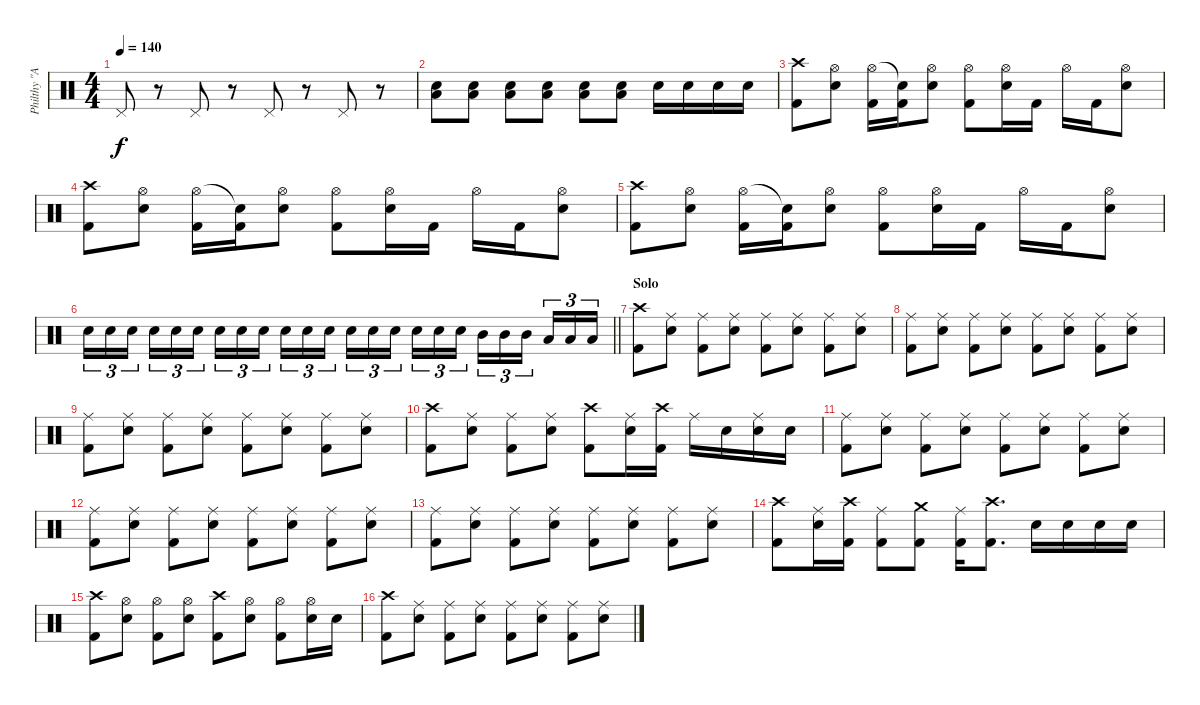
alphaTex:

\track ("Philthy \"Animal\" Taylor (drums)" "Philthy \"A") {instrument percussion}
\staff {score}
\articulation defaults
\ts (4 4)
\tempo 140
\clef neutral
\ks c "Pedal Hi-Hat (hit)".8{dy f}
r.8 "Pedal Hi-Hat (hit)".8 r.8 "Pedal Hi-Hat (hit)".8 r.8 "Pedal Hi-Hat (hit)".8 r.8 |
("Electric Snare (hit)" "Low Floor Tom (hit)").8 ("Electric Snare (hit)" "Low Floor Tom (hit)").8 ("Electric Snare (hit)" "Low Floor Tom (hit)").8 ("Electric Snare (hit)" "Low Floor Tom (hit)").8 ("Electric Snare (hit)" "Low Floor Tom (hit)").8 ("Electric Snare (hit)" "Low Floor Tom (hit)").8 "Electric Snare (hit)".16 "Electric Snare (hit)".16 "Electric Snare (hit)".16 "Electric Snare (hit)".16 |
("Crash high (hit)" "Kick (hit) 2").8 ("Hi-Hat (open)" "Electric Snare (hit)").8 ("Hi-Hat (open)" "Kick (hit) 2").16 ("Snare (hit)"{t} "Kick (hit) 2").16 ("Hi-Hat (open)" "Electric Snare (hit)").8 ("Hi-Hat (open)" "Kick (hit) 2").8 ("Hi-Hat (open)" "Electric Snare (hit)").16 "Kick (hit) 2".16 "Hi-Hat (open)".16 "Kick (hit) 2".16 ("Hi-Hat (open)" "Electric Snare (hit)").8 |
("Crash high (hit)" "Kick (hit) 2").8 ("Hi-Hat (open)" "Electric Snare (hit)").8 ("Hi-Hat (open)" "Kick (hit) 2").16 ("Snare (hit)"{t} "Kick (hit) 2").16 ("Hi-Hat (open)" "Electric Snare (hit)").8 ("Hi-Hat (open)" "Kick (hit) 2").8 ("Hi-Hat (open)" "Electric Snare (hit)").16 "Kick (hit) 2".16 "Hi-Hat (open)".16 "Kick (hit) 2".16 ("Hi-Hat (open)" "Electric Snare (hit)").8 |
("Crash high (hit)" "Kick (hit) 2").8 ("Hi-Hat (open)" "Electric Snare (hit)").8 ("Hi-Hat (open)" "Kick (hit) 2").16 ("Snare (hit)"{t} "Kick (hit) 2").16 ("Hi-Hat (open)" "Electric Snare (hit)").8 ("Hi-Hat (open)" "Kick (hit) 2").8 ("Hi-Hat (open)" "Electric Snare (hit)").16 "Kick (hit) 2".16 "Hi-Hat (open)".16 "Kick (hit) 2".16 ("Hi-Hat (open)" "Electric Snare (hit)").8 |
\barLineRight lightlight "Electric Snare (hit)".16{tu (3 2)} "Electric Snare (hit)".16{tu (3 2)} "Electric Snare (hit)".16{tu (3 2) beam splitsecondary} "Electric Snare (hit)".16{tu (3 2)} "Electric Snare (hit)".16{tu (3 2)} "Electric Snare (hit)".16{tu (3 2)} "Electric Snare (hit)".16{tu (3 2)} "Electric Snare (hit)".16{tu (3 2)} "Electric Snare (hit)".16{tu (3 2) beam splitsecondary} "Electric Snare (hit)".16{tu (3 2)} "Electric Snare (hit)".16{tu (3 2)} "Electric Snare (hit)".16{tu (3 2)} "Electric Snare (hit)".16{tu (3 2)} "Electric Snare (hit)".16{tu (3 2)} "Electric Snare (hit)".16{tu (3 2) beam splitsecondary} "Electric Snare (hit)".16{tu (3 2)} "Electric Snare (hit)".16{tu (3 2)} "Electric Snare (hit)".16{tu (3 2)} "Mid Tom (hit)".16{tu (3 2)} "Mid Tom (hit)".16{tu (3 2)} "Mid Tom (hit)".16{tu (3 2) beam splitsecondary} "Low Tom (hit)".16{tu (3 2)} "Low Tom (hit)".16{tu (3 2)} "Low Tom (hit)".16{tu (3 2)}
|
\section ("" "Solo")
("Crash high (hit)" "Kick (hit) 2").8 ("Ride (middle)" "Electric Snare (hit)").8 ("Ride (middle)" "Kick (hit) 2").8 ("Ride (middle)" "Electric Snare (hit)").8 ("Ride (middle)" "Kick (hit) 2").8 ("Ride (middle)" "Electric Snare (hit)").8 ("Ride (middle)" "Kick (hit) 2").8 ("Ride (middle)" "Electric Snare (hit)").8 |
("Ride (middle)" "Kick (hit) 2").8 ("Ride (middle)" "Electric Snare (hit)").8 ("Ride (middle)" "Kick (hit) 2").8 ("Ride (middle)" "Electric Snare (hit)").8 ("Ride (middle)" "Kick (hit) 2").8 ("Ride (middle)" "Electric Snare (hit)").8 ("Ride (middle)" "Kick (hit) 2").8 ("Ride (middle)" "Electric Snare (hit)").8 |
("Ride (middle)" "Kick (hit) 2").8 ("Ride (middle)" "Electric Snare (hit)").8 ("Ride (middle)" "Kick (hit) 2").8 ("Ride (middle)" "Electric Snare (hit)").8 ("Ride (middle)" "Kick (hit) 2").8 ("Ride (middle)" "Electric Snare (hit)").8 ("Ride (middle)" "Kick (hit) 2").8 ("Ride (middle)" "Electric Snare (hit)").8 |
("Crash high (hit)" "Kick (hit) 2").8 ("Ride (middle)" "Electric Snare (hit)").8 ("Ride (middle)" "Kick (hit) 2").8 ("Ride (middle)" "Electric Snare (hit)").8 ("Crash high (hit)" "Kick (hit) 2").8 ("Ride (middle)" "Electric Snare (hit)").16 ("Crash high (hit)" "Kick (hit) 2").16 "Ride (middle)".16 "Electric Snare (hit)".16 ("Ride (middle)" "Electric Snare (hit)").16 "Electric Snare (hit)".16 |
("Ride (middle)" "Kick (hit) 2").8 ("Ride (middle)" "Electric Snare (hit)").8 ("Ride (middle)" "Kick (hit) 2").8 ("Ride (middle)" "Electric Snare (hit)").8 ("Ride (middle)" "Kick (hit) 2").8 ("Ride (middle)" "Electric Snare (hit)").8 ("Ride (middle)" "Kick (hit) 2").8 ("Ride (middle)" "Electric Snare (hit)").8 |
("Ride (middle)" "Kick (hit) 2").8 ("Ride (middle)" "Electric Snare (hit)").8 ("Ride (middle)" "Kick (hit) 2").8 ("Ride (middle)" "Electric Snare (hit)").8 ("Ride (middle)" "Kick (hit) 2").8 ("Ride (middle)" "Electric Snare (hit)").8 ("Ride (middle)" "Kick (hit) 2").8 ("Ride (middle)" "Electric Snare (hit)").8 |
("Ride (middle)" "Kick (hit) 2").8 ("Ride (middle)" "Electric Snare (hit)").8 ("Ride (middle)" "Kick (hit) 2").8 ("Ride (middle)" "Electric Snare (hit)").8 ("Ride (middle)" "Kick (hit) 2").8 ("Ride (middle)" "Electric Snare (hit)").8 ("Ride (middle)" "Kick (hit) 2").8 ("Ride (middle)" "Electric Snare (hit)").8 |
("Crash high (hit)" "Kick (hit) 2").8 ("Ride (middle)" "Electric Snare (hit)").16 ("Crash high (hit)" "Kick (hit) 2").16 ("Ride (middle)" "Kick (hit) 2").8 ("Crash medium (hit)" "Kick (hit) 2").8 ("Ride (middle)" "Kick (hit) 2").16 ("Crash high (hit)" "Kick (hit) 2").8{d} "Electric Snare (hit)".16 "Electric Snare (hit)".16 "Electric Snare (hit)".16 "Electric Snare (hit)".16 |
("Crash high (hit)" "Kick (hit) 2").8 ("Hi-Hat (open)" "Electric Snare (hit)").8 ("Hi-Hat (open)" "Kick (hit) 2").8 ("Hi-Hat (open)" "Electric Snare (hit)").8 ("Crash high (hit)" "Kick (hit) 2").8 ("Hi-Hat (open)" "Electric Snare (hit)").8 ("Hi-Hat (open)" "Kick (hit) 2").8 ("Hi-Hat (open)" "Electric Snare (hit)").16 "Electric Snare (hit)".16 |
("Crash high (hit)" "Kick (hit) 2").8 ("Ride (middle)" "Electric Snare (hit)").8 ("Ride (middle)" "Kick (hit) 2").8 ("Ride (middle)" "Electric Snare (hit)").8 ("Ride (middle)" "Kick (hit) 2").8 ("Ride (middle)" "Electric Snare (hit)").8 ("Ride (middle)" "Kick (hit) 2").8 ("Ride (middle)" "Electric Snare (hit)").8
